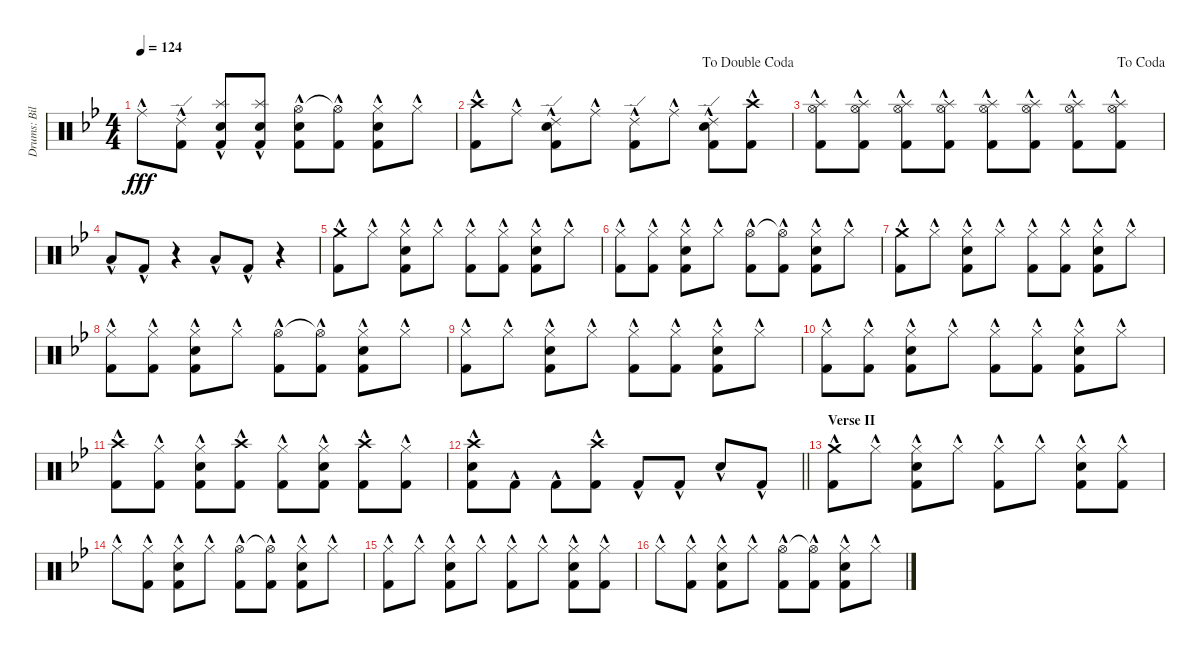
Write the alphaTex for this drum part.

\track ("Drums: Bill" "Drums: Bil") {instrument percussion}
\staff {score}
\articulation defaults
\ts (4 4)
\tempo 124
\clef neutral
\ks bb "Ride (middle)"{hac}.8{dy fff}
("Ride (edge) 2"{hac} "Kick (hit) 2"{hac}).8 ("Splash (hit)"{hac} "Snare (hit) 2"{hac} "Kick (hit) 2"{hac}).8 ("Splash (hit)"{hac} "Snare (hit) 2"{hac} "Kick (hit) 2"{hac}).8 ("Hi-Hat (open)"{hac} "Snare (hit) 2"{hac} "Kick (hit) 2"{hac}).8 ("Hi-Hat (open)"{t} "Kick (hit) 2"{hac}).8 ("Hi-Hat (closed)"{hac} "Snare (hit) 2"{hac} "Kick (hit) 2"{hac}).8 "Hi-Hat (closed)"{hac}.8 |
\jump dadoublecoda
("Crash high (hit)"{hac} "Kick (hit) 2"{hac}).8 "Ride (middle)"{hac}.8 ("Ride (edge) 2"{hac} "Snare (hit) 2"{hac} "Kick (hit) 2"{hac}).8 "Ride (middle)"{hac}.8 ("Ride (edge) 2"{hac} "Kick (hit) 2"{hac}).8 "Ride (middle)"{hac}.8 ("Ride (edge) 2"{hac} "Snare (hit) 2"{hac} "Kick (hit) 2"{hac}).8 ("Crash high (hit)"{hac} "Kick (hit) 2"{hac}).8 |
\jump dacoda
("Splash (hit)"{hac} "Hi-Hat (open)"{hac} "Kick (hit) 2"{hac}).8 ("Splash (hit)"{hac} "Hi-Hat (open)"{hac} "Kick (hit) 2"{hac}).8 ("Splash (hit)"{hac} "Hi-Hat (open)"{hac} "Kick (hit) 2"{hac}).8 ("Splash (hit)"{hac} "Hi-Hat (open)"{hac} "Kick (hit) 2"{hac}).8 ("Splash (hit)"{hac} "Hi-Hat (open)"{hac} "Kick (hit) 2"{hac}).8 ("Splash (hit)"{hac} "Hi-Hat (open)"{hac} "Kick (hit) 2"{hac}).8 ("Splash (hit)"{hac} "Hi-Hat (open)"{hac} "Kick (hit) 2"{hac}).8 ("Splash (hit)"{hac} "Hi-Hat (open)"{hac} "Kick (hit) 2"{hac}).8 |
"Low Tom (hit)"{hac}.8 "Kick (hit) 2"{hac}.8 r.4 "Low Tom (hit)"{hac}.8 "Kick (hit) 2"{hac}.8 r.4 |
("Crash medium (hit)"{hac} "Kick (hit) 2"{hac}).8 "Hi-Hat (closed)"{hac}.8 ("Hi-Hat (closed)"{hac} "Snare (hit) 2"{hac} "Kick (hit) 2"{hac}).8 "Hi-Hat (closed)"{hac}.8 ("Hi-Hat (closed)"{hac} "Kick (hit) 2"{hac}).8 ("Hi-Hat (closed)"{hac} "Kick (hit) 2"{hac}).8 ("Hi-Hat (closed)"{hac} "Snare (hit) 2"{hac} "Kick (hit) 2"{hac}).8 "Hi-Hat (closed)"{hac}.8 |
("Hi-Hat (closed)"{hac} "Kick (hit) 2"{hac}).8 ("Hi-Hat (closed)"{hac} "Kick (hit) 2"{hac}).8 ("Hi-Hat (closed)"{hac} "Snare (hit) 2"{hac} "Kick (hit) 2"{hac}).8 "Hi-Hat (closed)"{hac}.8 ("Hi-Hat (open)"{hac} "Kick (hit) 2"{hac}).8 ("Hi-Hat (open)"{t} "Kick (hit) 2"{hac}).8 ("Hi-Hat (closed)"{hac} "Snare (hit) 2"{hac} "Kick (hit) 2"{hac}).8 "Hi-Hat (closed)"{hac}.8 |
("Crash medium (hit)"{hac} "Kick (hit) 2"{hac}).8 "Hi-Hat (closed)"{hac}.8 ("Hi-Hat (closed)"{hac} "Snare (hit) 2"{hac} "Kick (hit) 2"{hac}).8 "Hi-Hat (closed)"{hac}.8 ("Hi-Hat (closed)"{hac} "Kick (hit) 2"{hac}).8 ("Hi-Hat (closed)"{hac} "Kick (hit) 2"{hac}).8 ("Hi-Hat (closed)"{hac} "Snare (hit) 2"{hac} "Kick (hit) 2"{hac}).8 "Hi-Hat (closed)"{hac}.8 |
("Hi-Hat (closed)"{hac} "Kick (hit) 2"{hac}).8 ("Hi-Hat (closed)"{hac} "Kick (hit) 2"{hac}).8 ("Hi-Hat (closed)"{hac} "Snare (hit) 2"{hac} "Kick (hit) 2"{hac}).8 "Hi-Hat (closed)"{hac}.8 ("Hi-Hat (open)"{hac} "Kick (hit) 2"{hac}).8 ("Hi-Hat (open)"{t} "Kick (hit) 2"{hac}).8 ("Hi-Hat (closed)"{hac} "Snare (hit) 2"{hac} "Kick (hit) 2"{hac}).8 "Hi-Hat (closed)"{hac}.8 |
("Hi-Hat (closed)"{hac} "Kick (hit) 2"{hac}).8 "Hi-Hat (closed)"{hac}.8 ("Hi-Hat (closed)"{hac} "Snare (hit) 2"{hac} "Kick (hit) 2"{hac}).8 "Hi-Hat (closed)"{hac}.8 ("Hi-Hat (closed)"{hac} "Kick (hit) 2"{hac}).8 ("Hi-Hat (closed)"{hac} "Kick (hit) 2"{hac}).8 ("Hi-Hat (closed)"{hac} "Snare (hit) 2"{hac} "Kick (hit) 2"{hac}).8 "Hi-Hat (closed)"{hac}.8 |
("Hi-Hat (closed)"{hac} "Kick (hit) 2"{hac}).8 ("Hi-Hat (closed)"{hac} "Kick (hit) 2"{hac}).8 ("Hi-Hat (closed)"{hac} "Snare (hit) 2"{hac} "Kick (hit) 2"{hac}).8 "Hi-Hat (closed)"{hac}.8 ("Hi-Hat (closed)"{hac} "Kick (hit) 2"{hac}).8 ("Hi-Hat (closed)"{hac} "Kick (hit) 2"{hac}).8 ("Hi-Hat (closed)"{hac} "Snare (hit) 2"{hac} "Kick (hit) 2"{hac}).8 "Hi-Hat (closed)"{hac}.8 |
("Crash high (hit)"{hac} "Kick (hit) 2"{hac}).8 ("Hi-Hat (closed)"{hac} "Kick (hit) 2"{hac}).8 ("Hi-Hat (closed)"{hac} "Snare (hit) 2"{hac} "Kick (hit) 2"{hac}).8 ("Crash high (hit)"{hac} "Kick (hit) 2"{hac}).8 ("Hi-Hat (closed)"{hac} "Kick (hit) 2"{hac}).8 ("Hi-Hat (closed)"{hac} "Snare (hit) 2"{hac} "Kick (hit) 2"{hac}).8 ("Crash high (hit)"{hac} "Kick (hit) 2"{hac}).8 ("Hi-Hat (closed)"{hac} "Kick (hit) 2"{hac}).8 |
\barLineRight lightlight
("Crash high (hit)"{hac} "Snare (hit) 2"{hac} "Kick (hit) 2"{hac}).8 "Kick (hit) 2"{hac}.8 "Kick (hit) 2"{hac}.8 ("Crash high (hit)"{hac} "Kick (hit) 2"{hac}).8 "Kick (hit) 2"{hac}.8 "Kick (hit) 2"{hac}.8 "Snare (hit) 2"{hac}.8 "Kick (hit) 2"{hac}.8 |
\section ("" "Verse II")
("Crash medium (hit)"{hac} "Kick (hit) 2"{hac}).8 "Hi-Hat (closed)"{hac}.8 ("Hi-Hat (closed)"{hac} "Snare (hit) 2"{hac} "Kick (hit) 2"{hac}).8 "Hi-Hat (closed)"{hac}.8 ("Hi-Hat (closed)"{hac} "Kick (hit) 2"{hac}).8 "Hi-Hat (closed)"{hac}.8 ("Hi-Hat (closed)"{hac} "Snare (hit) 2"{hac} "Kick (hit) 2"{hac}).8 ("Hi-Hat (closed)"{hac} "Kick (hit) 2"{hac}).8 |
"Hi-Hat (closed)"{hac}.8 ("Hi-Hat (closed)"{hac} "Kick (hit) 2"{hac}).8 ("Hi-Hat (closed)"{hac} "Snare (hit) 2"{hac} "Kick (hit) 2"{hac}).8 "Hi-Hat (closed)"{hac}.8 ("Hi-Hat (open)"{hac} "Kick (hit) 2"{hac}).8 ("Hi-Hat (open)"{t} "Kick (hit) 2"{hac}).8 ("Hi-Hat (closed)"{hac} "Snare (hit) 2"{hac} "Kick (hit) 2"{hac}).8 "Hi-Hat (closed)"{hac}.8 |
("Hi-Hat (closed)"{hac} "Kick (hit) 2"{hac}).8 "Hi-Hat (closed)"{hac}.8 ("Hi-Hat (closed)"{hac} "Snare (hit) 2"{hac} "Kick (hit) 2"{hac}).8 "Hi-Hat (closed)"{hac}.8 ("Hi-Hat (closed)"{hac} "Kick (hit) 2"{hac}).8 "Hi-Hat (closed)"{hac}.8 ("Hi-Hat (closed)"{hac} "Snare (hit) 2"{hac} "Kick (hit) 2"{hac}).8 ("Hi-Hat (closed)"{hac} "Kick (hit) 2"{hac}).8 |
"Hi-Hat (closed)"{hac}.8 ("Hi-Hat (closed)"{hac} "Kick (hit) 2"{hac}).8 ("Hi-Hat (closed)"{hac} "Snare (hit) 2"{hac} "Kick (hit) 2"{hac}).8 "Hi-Hat (closed)"{hac}.8 ("Hi-Hat (open)"{hac} "Kick (hit) 2"{hac}).8 ("Hi-Hat (open)"{t} "Kick (hit) 2"{hac}).8 ("Hi-Hat (closed)"{hac} "Snare (hit) 2"{hac} "Kick (hit) 2"{hac}).8 "Hi-Hat (closed)"{hac}.8
